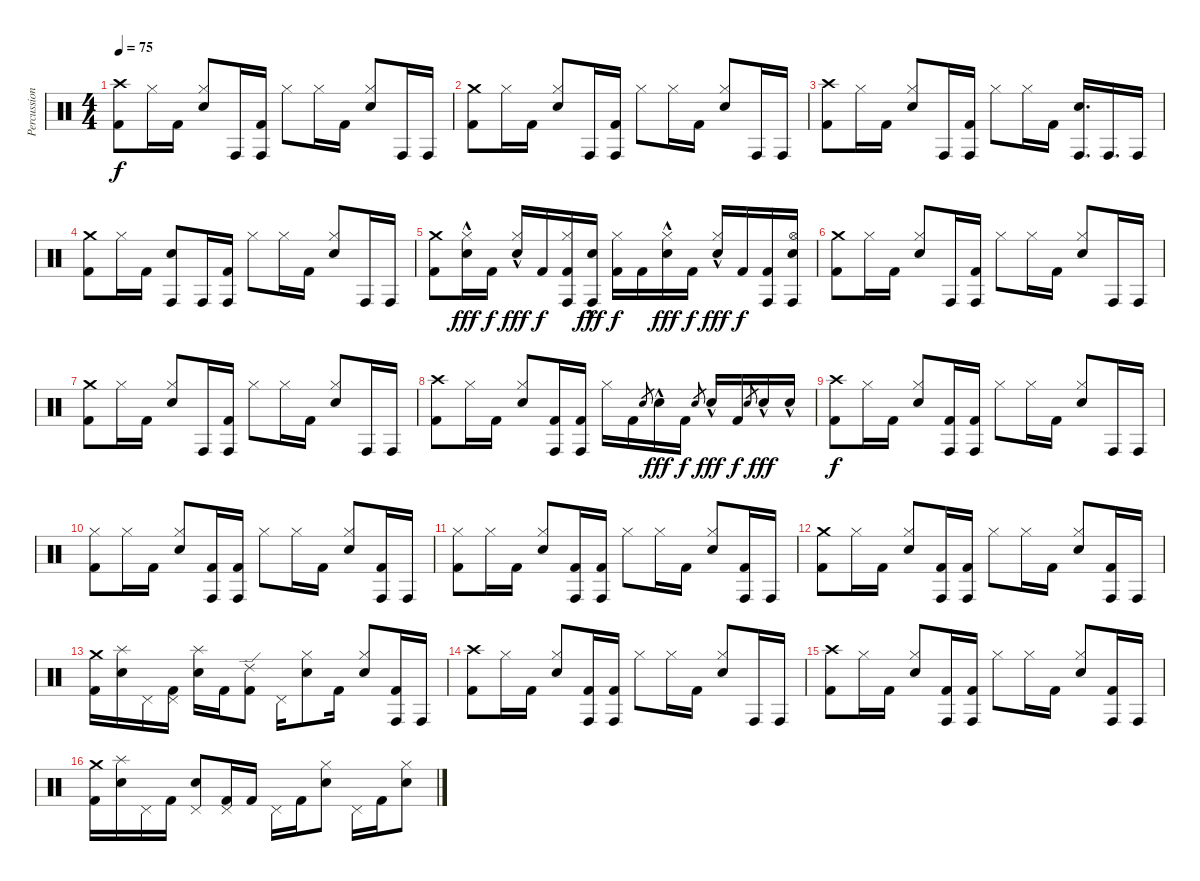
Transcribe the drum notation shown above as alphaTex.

\track ("Percussion" "Percussion") {instrument percussion}
\staff {score}
\articulation defaults
\ts (4 4)
\tempo 75
\clef neutral
\ks c
("Crash high (hit)" "Kick (hit) 2").8{dy f} "Hi-Hat (closed)".16 "Kick (hit) 2".16 ("Hi-Hat (closed)" "Electric Snare (hit)").8 "Conga high (hit)".16 ("Conga high (hit)" "Kick (hit) 2").16 "Hi-Hat (closed)".8 "Hi-Hat (closed)".16 "Kick (hit) 2".16 ("Hi-Hat (closed)" "Electric Snare (hit)").8 "Conga high (hit)".16 "Conga high (hit)".16 |
("Crash medium (hit)" "Kick (hit) 2").8 "Hi-Hat (closed)".16 "Kick (hit) 2".16 ("Hi-Hat (closed)" "Electric Snare (hit)").8 "Conga high (hit)".16 ("Conga high (hit)" "Kick (hit) 2").16 "Hi-Hat (closed)".8 "Hi-Hat (closed)".16 "Kick (hit) 2".16 ("Hi-Hat (closed)" "Electric Snare (hit)").8 "Conga high (hit)".16 "Conga high (hit)".16 |
("Crash high (hit)" "Kick (hit) 2").8 "Hi-Hat (closed)".16 "Kick (hit) 2".16 ("Hi-Hat (closed)" "Electric Snare (hit)").8 "Conga high (hit)".16 ("Conga high (hit)" "Kick (hit) 2").16 "Hi-Hat (closed)".8 "Hi-Hat (closed)".16 "Kick (hit) 2".16 ("Conga high (hit)" "Electric Snare (hit)").16{d} "Conga high (hit)".16{d} "Conga high (hit)".16 |
("Crash medium (hit)" "Kick (hit) 2").8 "Hi-Hat (closed)".16 "Kick (hit) 2".16 ("Conga high (hit)" "Electric Snare (hit)").8 "Conga high (hit)".16 ("Conga high (hit)" "Kick (hit) 2").16 "Hi-Hat (closed)".8 "Hi-Hat (closed)".16 "Kick (hit) 2".16 ("Hi-Hat (closed)" "Electric Snare (hit)").8 "Conga high (hit)".16 "Conga high (hit)".16 |
("Crash medium (hit)" "Kick (hit) 2").8 ("Hi-Hat (closed)" "Electric Snare (hit)"{hac}).16{dy fff} "Kick (hit) 2".16{dy f} ("Hi-Hat (closed)" "Electric Snare (hit)"{hac}).16{dy fff} "Kick (hit) 2".16{dy f} ("Conga high (hit)" "Hi-Hat (closed)" "Kick (hit) 2").16 ("Conga high (hit)" "Electric Snare (hit)"{hac}).16{dy fff} ("Hi-Hat (closed)" "Kick (hit) 2").16{dy f} "Kick (hit) 2".16 ("Hi-Hat (closed)" "Electric Snare (hit)"{hac}).16{dy fff} "Kick (hit) 2".16{dy f} ("Hi-Hat (closed)" "Electric Snare (hit)"{hac}).16{dy fff} "Kick (hit) 2".16{dy f} ("Conga high (hit)" "Kick (hit) 2").16 ("Conga high (hit)" "Hi-Hat (open)" "Electric Snare (hit)").16 |
("Crash medium (hit)" "Kick (hit) 2").8 "Hi-Hat (closed)".16 "Kick (hit) 2".16 ("Hi-Hat (closed)" "Electric Snare (hit)").8 "Conga high (hit)".16 ("Conga high (hit)" "Kick (hit) 2").16 "Hi-Hat (closed)".8 "Hi-Hat (closed)".16 "Kick (hit) 2".16 ("Hi-Hat (closed)" "Electric Snare (hit)").8 "Conga high (hit)".16 "Conga high (hit)".16 |
("Crash medium (hit)" "Kick (hit) 2").8 "Hi-Hat (closed)".16 "Kick (hit) 2".16 ("Hi-Hat (closed)" "Electric Snare (hit)").8 "Conga high (hit)".16 ("Conga high (hit)" "Kick (hit) 2").16 "Hi-Hat (closed)".8 "Hi-Hat (closed)".16 "Kick (hit) 2".16 ("Hi-Hat (closed)" "Electric Snare (hit)").8 "Conga high (hit)".16 "Conga high (hit)".16 |
("Crash high (hit)" "Kick (hit) 2").8 "Hi-Hat (closed)".16 "Kick (hit) 2".16 ("Hi-Hat (closed)" "Electric Snare (hit)").8 ("Conga high (hit)" "Kick (hit) 2").16 ("Conga high (hit)" "Kick (hit) 2").16 "Hi-Hat (closed)".16 "Kick (hit) 2".16 "Electric Snare (hit)".8{gr} "Electric Snare (hit)"{hac}.16{dy fff} "Kick (hit) 2".16{dy f} "Electric Snare (hit)".8{gr} "Electric Snare (hit)"{hac}.16{dy fff} "Kick (hit) 2".16{dy f} "Electric Snare (hit)".8{gr} "Electric Snare (hit)"{hac}.16{dy fff} "Electric Snare (hit)"{hac}.16 |
("Crash high (hit)" "Kick (hit) 2").8{dy f} "Hi-Hat (closed)".16 "Kick (hit) 2".16 ("Hi-Hat (closed)" "Electric Snare (hit)").8 ("Conga high (hit)" "Kick (hit) 2").16 ("Conga high (hit)" "Kick (hit) 2").16 "Hi-Hat (closed)".8 "Hi-Hat (closed)".16 "Kick (hit) 2".16 ("Hi-Hat (closed)" "Electric Snare (hit)").8 "Conga high (hit)".16 "Conga high (hit)".16 |
("Hi-Hat (closed)" "Kick (hit) 2").8 "Hi-Hat (closed)".16 "Kick (hit) 2".16 ("Hi-Hat (closed)" "Electric Snare (hit)").8 ("Conga high (hit)" "Kick (hit) 2").16 ("Conga high (hit)" "Kick (hit) 2").16 "Hi-Hat (closed)".8 "Hi-Hat (closed)".16 "Kick (hit) 2".16 ("Hi-Hat (closed)" "Electric Snare (hit)").8 ("Conga high (hit)" "Kick (hit) 2").16 "Conga high (hit)".16 |
("Hi-Hat (closed)" "Kick (hit) 2").8 "Hi-Hat (closed)".16 "Kick (hit) 2".16 ("Hi-Hat (closed)" "Electric Snare (hit)").8 ("Conga high (hit)" "Kick (hit) 2").16 ("Conga high (hit)" "Kick (hit) 2").16 "Hi-Hat (closed)".8 "Hi-Hat (closed)".16 "Kick (hit) 2".16 ("Hi-Hat (closed)" "Electric Snare (hit)").8 ("Conga high (hit)" "Kick (hit) 2").16 "Conga high (hit)".16 |
("Crash medium (hit)" "Kick (hit) 2").8 "Hi-Hat (closed)".16 "Kick (hit) 2".16 ("Hi-Hat (closed)" "Electric Snare (hit)").8 ("Conga high (hit)" "Kick (hit) 2").16 ("Conga high (hit)" "Kick (hit) 2").16 "Hi-Hat (closed)".8 "Hi-Hat (closed)".16 "Kick (hit) 2".16 ("Hi-Hat (closed)" "Electric Snare (hit)").8 ("Conga high (hit)" "Kick (hit) 2").16 "Conga high (hit)".16 |
("Crash medium (hit)" "Kick (hit) 2").16 ("Splash (hit)" "Electric Snare (hit)").16 "Pedal Hi-Hat (hit)".16 ("Pedal Hi-Hat (hit)" "Kick (hit) 2").16 ("Splash (hit)" "Electric Snare (hit)").16 "Kick (hit) 2".16 ("Ride (edge) 2" "Kick (hit) 2").8 "Pedal Hi-Hat (hit)".16 ("Hi-Hat (closed)" "Electric Snare (hit)").8 "Kick (hit) 2".16 ("Hi-Hat (closed)" "Electric Snare (hit)").8 ("Conga high (hit)" "Kick (hit) 2").16 "Conga high (hit)".16 |
("Crash high (hit)" "Kick (hit) 2").8 "Hi-Hat (closed)".16 "Kick (hit) 2".16 ("Hi-Hat (closed)" "Electric Snare (hit)").8 ("Conga high (hit)" "Kick (hit) 2").16 ("Conga high (hit)" "Kick (hit) 2").16 "Hi-Hat (closed)".8 "Hi-Hat (closed)".16 "Kick (hit) 2".16 ("Hi-Hat (closed)" "Electric Snare (hit)").8 "Conga high (hit)".16 "Conga high (hit)".16 |
("Crash high (hit)" "Kick (hit) 2").8 "Hi-Hat (closed)".16 "Kick (hit) 2".16 ("Hi-Hat (closed)" "Electric Snare (hit)").8 ("Conga high (hit)" "Kick (hit) 2").16 ("Conga high (hit)" "Kick (hit) 2").16 "Hi-Hat (closed)".8 "Hi-Hat (closed)".16 "Kick (hit) 2".16 ("Hi-Hat (closed)" "Electric Snare (hit)").8 ("Conga high (hit)" "Kick (hit) 2").16 "Conga high (hit)".16 |
("Crash medium (hit)" "Kick (hit) 2").16 ("Splash (hit)" "Electric Snare (hit)").16 "Pedal Hi-Hat (hit)".16 "Kick (hit) 2".16 ("Pedal Hi-Hat (hit)" "Electric Snare (hit)").8 ("Pedal Hi-Hat (hit)" "Kick (hit) 2").16 "Kick (hit) 2".16 "Pedal Hi-Hat (hit)".16 "Kick (hit) 2".16 ("Hi-Hat (closed)" "Electric Snare (hit)").8 "Pedal Hi-Hat (hit)".16 "Kick (hit) 2".16 ("Hi-Hat (closed)" "Electric Snare (hit)").8
